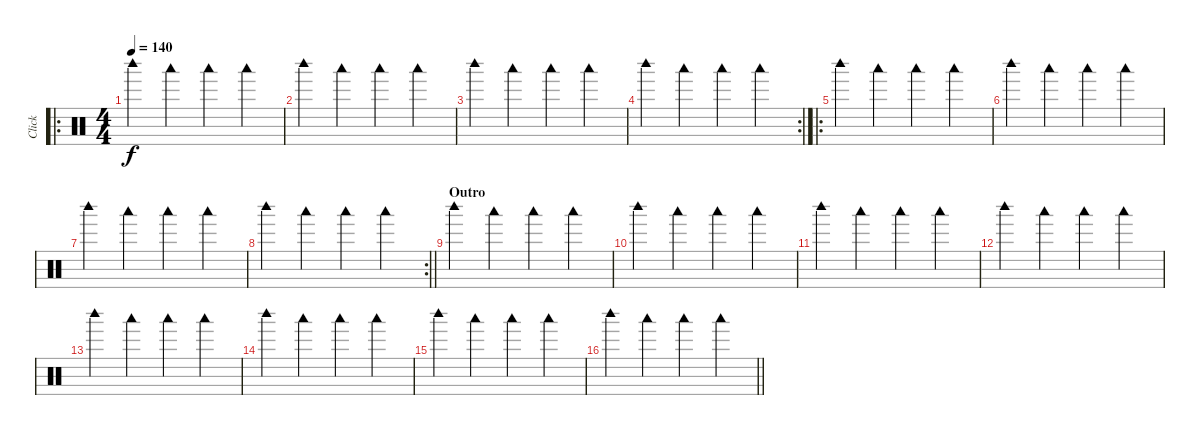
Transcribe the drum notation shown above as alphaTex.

\track ("Click" "Click") {mute instrument percussion}
\staff {score}
\articulation defaults
\ro
\ts (4 4)
\tempo 140
\clef neutral
\ks c "Woodblock high (hit)".4{dy f} "Woodblock low (hit)".4 "Woodblock low (hit)".4 "Woodblock low (hit)".4
|
"Woodblock high (hit)".4 "Woodblock low (hit)".4 "Woodblock low (hit)".4 "Woodblock low (hit)".4 |
"Woodblock high (hit)".4 "Woodblock low (hit)".4 "Woodblock low (hit)".4 "Woodblock low (hit)".4 |
\rc 2 "Woodblock high (hit)".4 "Woodblock low (hit)".4 "Woodblock low (hit)".4 "Woodblock low (hit)".4
|
\ro "Woodblock high (hit)".4 "Woodblock low (hit)".4 "Woodblock low (hit)".4 "Woodblock low (hit)".4
|
"Woodblock high (hit)".4 "Woodblock low (hit)".4 "Woodblock low (hit)".4 "Woodblock low (hit)".4 |
"Woodblock high (hit)".4 "Woodblock low (hit)".4 "Woodblock low (hit)".4 "Woodblock low (hit)".4 |
\rc 2
\barLineRight lightlight "Woodblock high (hit)".4 "Woodblock low (hit)".4 "Woodblock low (hit)".4 "Woodblock low (hit)".4
|
\section ("" "Outro")
"Woodblock high (hit)".4 "Woodblock low (hit)".4 "Woodblock low (hit)".4 "Woodblock low (hit)".4 |
"Woodblock high (hit)".4 "Woodblock low (hit)".4 "Woodblock low (hit)".4 "Woodblock low (hit)".4 |
"Woodblock high (hit)".4 "Woodblock low (hit)".4 "Woodblock low (hit)".4 "Woodblock low (hit)".4 |
"Woodblock high (hit)".4 "Woodblock low (hit)".4 "Woodblock low (hit)".4 "Woodblock low (hit)".4 |
"Woodblock high (hit)".4 "Woodblock low (hit)".4 "Woodblock low (hit)".4 "Woodblock low (hit)".4 |
"Woodblock high (hit)".4 "Woodblock low (hit)".4 "Woodblock low (hit)".4 "Woodblock low (hit)".4 |
"Woodblock high (hit)".4 "Woodblock low (hit)".4 "Woodblock low (hit)".4 "Woodblock low (hit)".4 |
\barLineRight lightlight "Woodblock high (hit)".4 "Woodblock low (hit)".4 "Woodblock low (hit)".4 "Woodblock low (hit)".4
